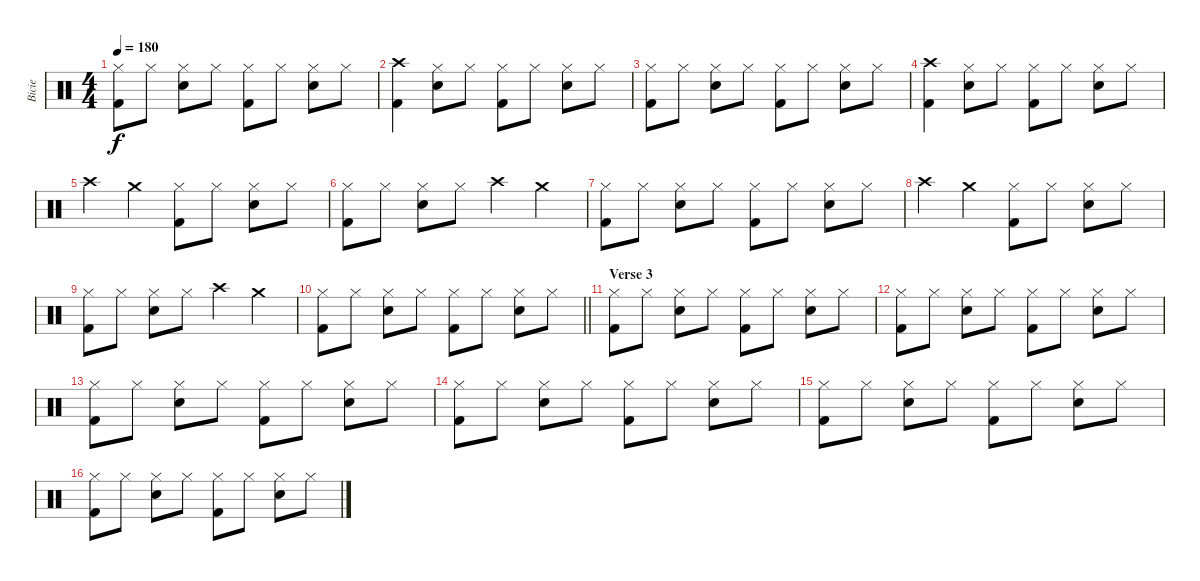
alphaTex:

\track ("Bicie" "Bicie") {instrument percussion}
\staff {score}
\articulation defaults
\ts (4 4)
\tempo 180
\clef neutral
\ks c
("Hi-Hat (closed)" "Kick (hit) 2").8{dy f} "Hi-Hat (closed)".8 ("Hi-Hat (closed)" "Snare (hit) 2").8 "Hi-Hat (closed)".8 ("Hi-Hat (closed)" "Kick (hit) 2").8 "Hi-Hat (closed)".8 ("Hi-Hat (closed)" "Snare (hit) 2").8 "Hi-Hat (closed)".8 |
("Kick (hit) 2" "Crash high (hit)").4 ("Hi-Hat (closed)" "Snare (hit) 2").8 "Hi-Hat (closed)".8 ("Hi-Hat (closed)" "Kick (hit) 2").8 "Hi-Hat (closed)".8 ("Hi-Hat (closed)" "Snare (hit) 2").8 "Hi-Hat (closed)".8 |
("Hi-Hat (closed)" "Kick (hit) 2").8 "Hi-Hat (closed)".8 ("Hi-Hat (closed)" "Snare (hit) 2").8 "Hi-Hat (closed)".8 ("Hi-Hat (closed)" "Kick (hit) 2").8 "Hi-Hat (closed)".8 ("Hi-Hat (closed)" "Snare (hit) 2").8 "Hi-Hat (closed)".8 |
("Kick (hit) 2" "Crash high (hit)").4 ("Hi-Hat (closed)" "Snare (hit) 2").8 "Hi-Hat (closed)".8 ("Hi-Hat (closed)" "Kick (hit) 2").8 "Hi-Hat (closed)".8 ("Hi-Hat (closed)" "Snare (hit) 2").8 "Hi-Hat (closed)".8 |
"Crash high (hit)".4 "Crash medium (hit)".4 ("Hi-Hat (closed)" "Kick (hit) 2").8 "Hi-Hat (closed)".8 ("Hi-Hat (closed)" "Snare (hit) 2").8 "Hi-Hat (closed)".8 |
("Hi-Hat (closed)" "Kick (hit) 2").8 "Hi-Hat (closed)".8 ("Hi-Hat (closed)" "Snare (hit) 2").8 "Hi-Hat (closed)".8 "Crash high (hit)".4 "Crash medium (hit)".4 |
("Hi-Hat (closed)" "Kick (hit) 2").8 "Hi-Hat (closed)".8 ("Hi-Hat (closed)" "Snare (hit) 2").8 "Hi-Hat (closed)".8 ("Hi-Hat (closed)" "Kick (hit) 2").8 "Hi-Hat (closed)".8 ("Hi-Hat (closed)" "Snare (hit) 2").8 "Hi-Hat (closed)".8 |
"Crash high (hit)".4 "Crash medium (hit)".4 ("Hi-Hat (closed)" "Kick (hit) 2").8 "Hi-Hat (closed)".8 ("Hi-Hat (closed)" "Snare (hit) 2").8 "Hi-Hat (closed)".8 |
("Hi-Hat (closed)" "Kick (hit) 2").8 "Hi-Hat (closed)".8 ("Hi-Hat (closed)" "Snare (hit) 2").8 "Hi-Hat (closed)".8 "Crash high (hit)".4 "Crash medium (hit)".4 |
\barLineRight lightlight
("Hi-Hat (closed)" "Kick (hit) 2").8 "Hi-Hat (closed)".8 ("Hi-Hat (closed)" "Snare (hit) 2").8 "Hi-Hat (closed)".8 ("Hi-Hat (closed)" "Kick (hit) 2").8 "Hi-Hat (closed)".8 ("Hi-Hat (closed)" "Snare (hit) 2").8 "Hi-Hat (closed)".8 |
\section ("" "Verse 3")
("Hi-Hat (closed)" "Kick (hit) 2").8 "Hi-Hat (closed)".8 ("Hi-Hat (closed)" "Snare (hit) 2").8 "Hi-Hat (closed)".8 ("Hi-Hat (closed)" "Kick (hit) 2").8 "Hi-Hat (closed)".8 ("Hi-Hat (closed)" "Snare (hit) 2").8 "Hi-Hat (closed)".8 |
("Hi-Hat (closed)" "Kick (hit) 2").8 "Hi-Hat (closed)".8 ("Hi-Hat (closed)" "Snare (hit) 2").8 "Hi-Hat (closed)".8 ("Hi-Hat (closed)" "Kick (hit) 2").8 "Hi-Hat (closed)".8 ("Hi-Hat (closed)" "Snare (hit) 2").8 "Hi-Hat (closed)".8 |
("Hi-Hat (closed)" "Kick (hit) 2").8 "Hi-Hat (closed)".8 ("Hi-Hat (closed)" "Snare (hit) 2").8 "Hi-Hat (closed)".8 ("Hi-Hat (closed)" "Kick (hit) 2").8 "Hi-Hat (closed)".8 ("Hi-Hat (closed)" "Snare (hit) 2").8 "Hi-Hat (closed)".8 |
("Hi-Hat (closed)" "Kick (hit) 2").8 "Hi-Hat (closed)".8 ("Hi-Hat (closed)" "Snare (hit) 2").8 "Hi-Hat (closed)".8 ("Hi-Hat (closed)" "Kick (hit) 2").8 "Hi-Hat (closed)".8 ("Hi-Hat (closed)" "Snare (hit) 2").8 "Hi-Hat (closed)".8 |
("Hi-Hat (closed)" "Kick (hit) 2").8 "Hi-Hat (closed)".8 ("Hi-Hat (closed)" "Snare (hit) 2").8 "Hi-Hat (closed)".8 ("Hi-Hat (closed)" "Kick (hit) 2").8 "Hi-Hat (closed)".8 ("Hi-Hat (closed)" "Snare (hit) 2").8 "Hi-Hat (closed)".8 |
("Hi-Hat (closed)" "Kick (hit) 2").8 "Hi-Hat (closed)".8 ("Hi-Hat (closed)" "Snare (hit) 2").8 "Hi-Hat (closed)".8 ("Hi-Hat (closed)" "Kick (hit) 2").8 "Hi-Hat (closed)".8 ("Hi-Hat (closed)" "Snare (hit) 2").8 "Hi-Hat (closed)".8
